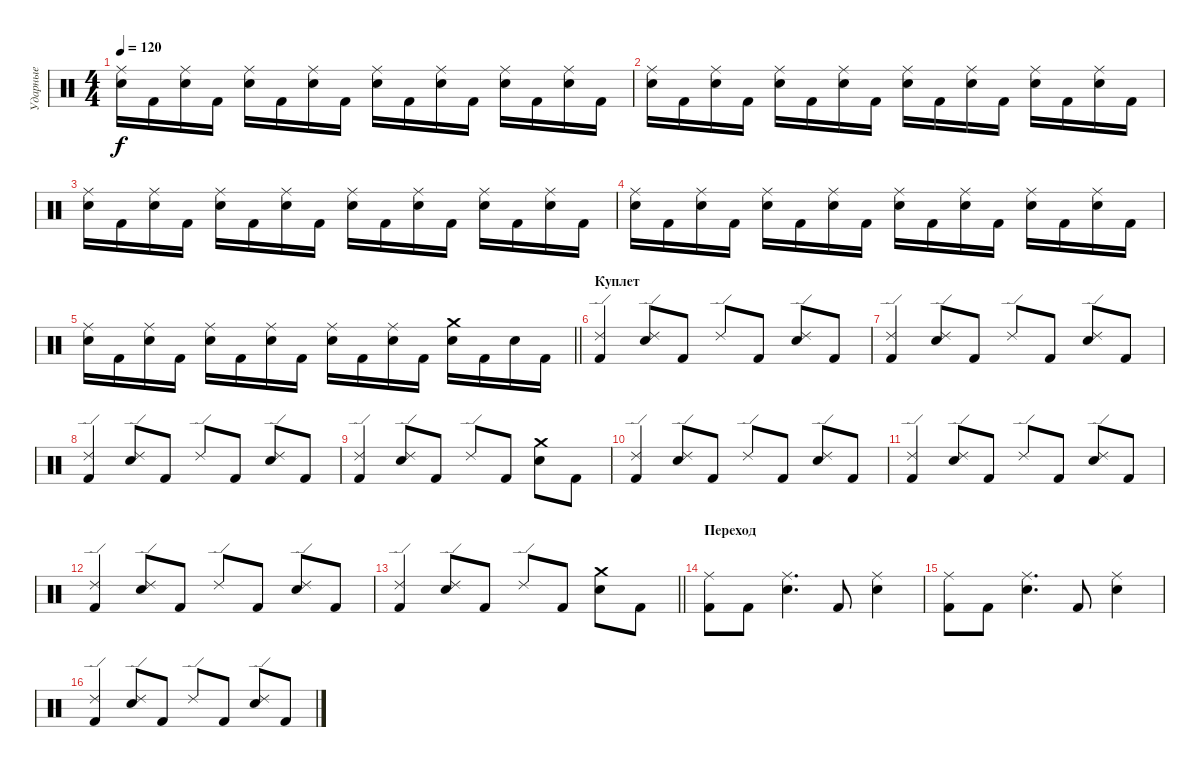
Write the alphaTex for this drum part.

\track ("Ударные" "Ударные") {instrument percussion}
\staff {score}
\articulation defaults
\ts (4 4)
\tempo 120
\clef neutral
\ks c
("Electric Snare (hit)" "Ride (middle)").16{dy f} "Kick (hit) 2".16 ("Electric Snare (hit)" "Ride (middle)").16 "Kick (hit) 2".16 ("Electric Snare (hit)" "Ride (middle)").16 "Kick (hit) 2".16 ("Electric Snare (hit)" "Ride (middle)").16 "Kick (hit) 2".16 ("Electric Snare (hit)" "Ride (middle)").16 "Kick (hit) 2".16 ("Electric Snare (hit)" "Ride (middle)").16 "Kick (hit) 2".16 ("Electric Snare (hit)" "Ride (middle)").16 "Kick (hit) 2".16 ("Electric Snare (hit)" "Ride (middle)").16 "Kick (hit) 2".16 |
("Electric Snare (hit)" "Ride (middle)").16 "Kick (hit) 2".16 ("Electric Snare (hit)" "Ride (middle)").16 "Kick (hit) 2".16 ("Electric Snare (hit)" "Ride (middle)").16 "Kick (hit) 2".16 ("Electric Snare (hit)" "Ride (middle)").16 "Kick (hit) 2".16 ("Electric Snare (hit)" "Ride (middle)").16 "Kick (hit) 2".16 ("Electric Snare (hit)" "Ride (middle)").16 "Kick (hit) 2".16 ("Electric Snare (hit)" "Ride (middle)").16 "Kick (hit) 2".16 ("Electric Snare (hit)" "Ride (middle)").16 "Kick (hit) 2".16 |
("Electric Snare (hit)" "Ride (middle)").16 "Kick (hit) 2".16 ("Electric Snare (hit)" "Ride (middle)").16 "Kick (hit) 2".16 ("Electric Snare (hit)" "Ride (middle)").16 "Kick (hit) 2".16 ("Electric Snare (hit)" "Ride (middle)").16 "Kick (hit) 2".16 ("Electric Snare (hit)" "Ride (middle)").16 "Kick (hit) 2".16 ("Electric Snare (hit)" "Ride (middle)").16 "Kick (hit) 2".16 ("Electric Snare (hit)" "Ride (middle)").16 "Kick (hit) 2".16 ("Electric Snare (hit)" "Ride (middle)").16 "Kick (hit) 2".16 |
("Electric Snare (hit)" "Ride (middle)").16 "Kick (hit) 2".16 ("Electric Snare (hit)" "Ride (middle)").16 "Kick (hit) 2".16 ("Electric Snare (hit)" "Ride (middle)").16 "Kick (hit) 2".16 ("Electric Snare (hit)" "Ride (middle)").16 "Kick (hit) 2".16 ("Electric Snare (hit)" "Ride (middle)").16 "Kick (hit) 2".16 ("Electric Snare (hit)" "Ride (middle)").16 "Kick (hit) 2".16 ("Electric Snare (hit)" "Ride (middle)").16 "Kick (hit) 2".16 ("Electric Snare (hit)" "Ride (middle)").16 "Kick (hit) 2".16 |
\barLineRight lightlight
("Electric Snare (hit)" "Ride (middle)").16 "Kick (hit) 2".16 ("Electric Snare (hit)" "Ride (middle)").16 "Kick (hit) 2".16 ("Electric Snare (hit)" "Ride (middle)").16 "Kick (hit) 2".16 ("Electric Snare (hit)" "Ride (middle)").16 "Kick (hit) 2".16 ("Electric Snare (hit)" "Ride (middle)").16 "Kick (hit) 2".16 ("Electric Snare (hit)" "Ride (middle)").16 "Kick (hit) 2".16 ("Electric Snare (hit)" "Crash medium (hit)").16 "Kick (hit) 2".16 "Electric Snare (hit)".16 "Kick (hit) 2".16 |
\section ("" "Куплет")
("Kick (hit) 2" "Ride (edge) 2").4 ("Electric Snare (hit)" "Ride (edge) 2").8 "Kick (hit) 2".8 "Ride (edge) 2".8 "Kick (hit) 2".8 ("Electric Snare (hit)" "Ride (edge) 2").8 "Kick (hit) 2".8 |
("Kick (hit) 2" "Ride (edge) 2").4 ("Electric Snare (hit)" "Ride (edge) 2").8 "Kick (hit) 2".8 "Ride (edge) 2".8 "Kick (hit) 2".8 ("Electric Snare (hit)" "Ride (edge) 2").8 "Kick (hit) 2".8 |
("Kick (hit) 2" "Ride (edge) 2").4 ("Electric Snare (hit)" "Ride (edge) 2").8 "Kick (hit) 2".8 "Ride (edge) 2".8 "Kick (hit) 2".8 ("Electric Snare (hit)" "Ride (edge) 2").8 "Kick (hit) 2".8 |
("Kick (hit) 2" "Ride (edge) 2").4 ("Electric Snare (hit)" "Ride (edge) 2").8 "Kick (hit) 2".8 "Ride (edge) 2".8 "Kick (hit) 2".8 ("Electric Snare (hit)" "Crash medium (hit)").8 "Kick (hit) 2".8 |
("Kick (hit) 2" "Ride (edge) 2").4 ("Electric Snare (hit)" "Ride (edge) 2").8 "Kick (hit) 2".8 "Ride (edge) 2".8 "Kick (hit) 2".8 ("Electric Snare (hit)" "Ride (edge) 2").8 "Kick (hit) 2".8 |
("Kick (hit) 2" "Ride (edge) 2").4 ("Electric Snare (hit)" "Ride (edge) 2").8 "Kick (hit) 2".8 "Ride (edge) 2".8 "Kick (hit) 2".8 ("Electric Snare (hit)" "Ride (edge) 2").8 "Kick (hit) 2".8 |
("Kick (hit) 2" "Ride (edge) 2").4 ("Electric Snare (hit)" "Ride (edge) 2").8 "Kick (hit) 2".8 "Ride (edge) 2".8 "Kick (hit) 2".8 ("Electric Snare (hit)" "Ride (edge) 2").8 "Kick (hit) 2".8 |
\barLineRight lightlight
("Kick (hit) 2" "Ride (edge) 2").4 ("Electric Snare (hit)" "Ride (edge) 2").8 "Kick (hit) 2".8 "Ride (edge) 2".8 "Kick (hit) 2".8 ("Electric Snare (hit)" "Crash medium (hit)").8 "Kick (hit) 2".8 |
\section ("" "Переход")
("Kick (hit) 2" "Ride (middle)").8 "Kick (hit) 2".8 ("Electric Snare (hit)" "Ride (middle)").4{d} "Kick (hit) 2".8 ("Electric Snare (hit)" "Ride (middle)").4 |
("Kick (hit) 2" "Ride (middle)").8 "Kick (hit) 2".8 ("Electric Snare (hit)" "Ride (middle)").4{d} "Kick (hit) 2".8 ("Electric Snare (hit)" "Ride (middle)").4 |
("Kick (hit) 2" "Ride (edge) 2").4 ("Electric Snare (hit)" "Ride (edge) 2").8 "Kick (hit) 2".8 "Ride (edge) 2".8 "Kick (hit) 2".8 ("Electric Snare (hit)" "Ride (edge) 2").8 "Kick (hit) 2".8
